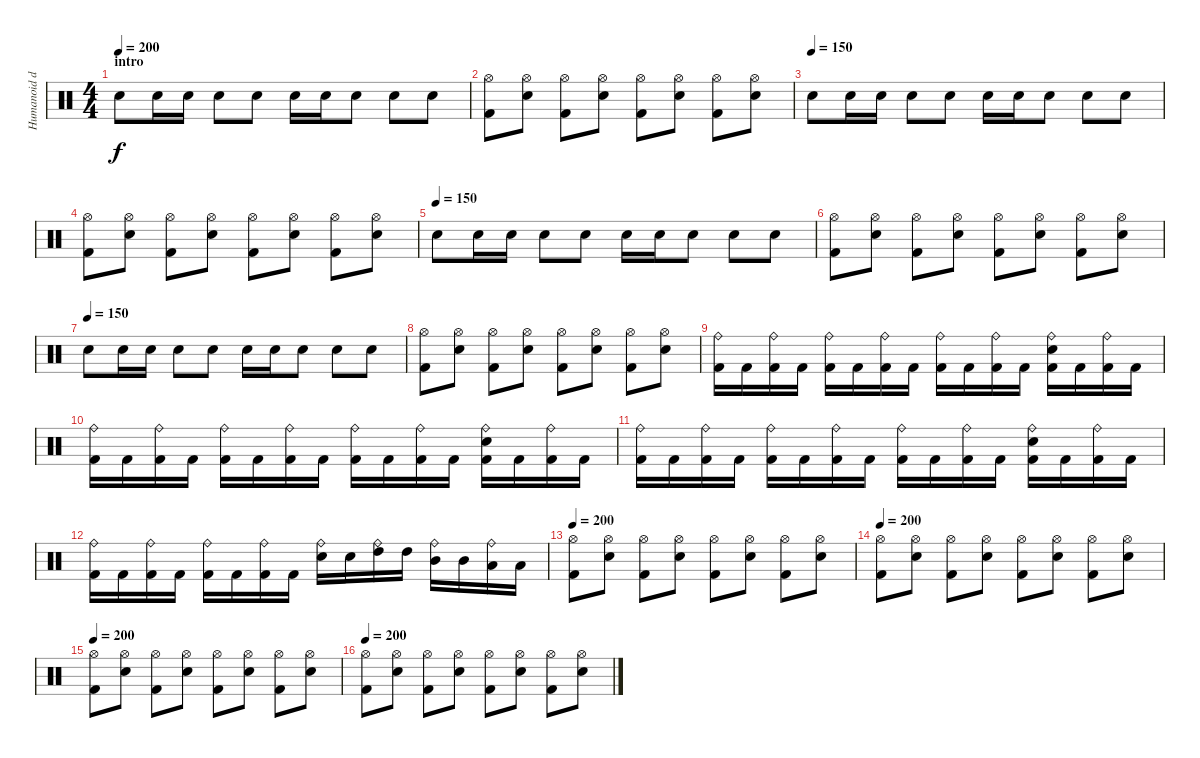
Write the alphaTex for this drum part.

\track ("Humanoid drum machine" "Humanoid d") {instrument percussion}
\staff {score}
\articulation defaults
\ts (4 4)
\section ("" "intro")
\tempo 200
\tempo 150
\tempo 200
\clef neutral
\ks c "Electric Snare (hit)".8{dy f} "Electric Snare (hit)".16 "Electric Snare (hit)".16 "Electric Snare (hit)".8 "Electric Snare (hit)".8 "Electric Snare (hit)".16 "Electric Snare (hit)".16 "Electric Snare (hit)".8 "Electric Snare (hit)".8 "Electric Snare (hit)".8
|
("Hi-Hat (open)" "Kick (hit) 2").8 ("Hi-Hat (open)" "Electric Snare (hit)").8 ("Hi-Hat (open)" "Kick (hit) 2").8 ("Hi-Hat (open)" "Electric Snare (hit)").8 ("Hi-Hat (open)" "Kick (hit) 2").8 ("Hi-Hat (open)" "Electric Snare (hit)").8 ("Hi-Hat (open)" "Kick (hit) 2").8 ("Hi-Hat (open)" "Electric Snare (hit)").8 |
\tempo (150)
"Electric Snare (hit)".8 "Electric Snare (hit)".16 "Electric Snare (hit)".16 "Electric Snare (hit)".8 "Electric Snare (hit)".8 "Electric Snare (hit)".16 "Electric Snare (hit)".16 "Electric Snare (hit)".8 "Electric Snare (hit)".8 "Electric Snare (hit)".8 |
("Hi-Hat (open)" "Kick (hit) 2").8 ("Hi-Hat (open)" "Electric Snare (hit)").8 ("Hi-Hat (open)" "Kick (hit) 2").8 ("Hi-Hat (open)" "Electric Snare (hit)").8 ("Hi-Hat (open)" "Kick (hit) 2").8 ("Hi-Hat (open)" "Electric Snare (hit)").8 ("Hi-Hat (open)" "Kick (hit) 2").8 ("Hi-Hat (open)" "Electric Snare (hit)").8 |
\tempo (150)
"Electric Snare (hit)".8 "Electric Snare (hit)".16 "Electric Snare (hit)".16 "Electric Snare (hit)".8 "Electric Snare (hit)".8 "Electric Snare (hit)".16 "Electric Snare (hit)".16 "Electric Snare (hit)".8 "Electric Snare (hit)".8 "Electric Snare (hit)".8 |
("Hi-Hat (open)" "Kick (hit) 2").8 ("Hi-Hat (open)" "Electric Snare (hit)").8 ("Hi-Hat (open)" "Kick (hit) 2").8 ("Hi-Hat (open)" "Electric Snare (hit)").8 ("Hi-Hat (open)" "Kick (hit) 2").8 ("Hi-Hat (open)" "Electric Snare (hit)").8 ("Hi-Hat (open)" "Kick (hit) 2").8 ("Hi-Hat (open)" "Electric Snare (hit)").8 |
\tempo (150)
"Electric Snare (hit)".8 "Electric Snare (hit)".16 "Electric Snare (hit)".16 "Electric Snare (hit)".8 "Electric Snare (hit)".8 "Electric Snare (hit)".16 "Electric Snare (hit)".16 "Electric Snare (hit)".8 "Electric Snare (hit)".8 "Electric Snare (hit)".8 |
("Hi-Hat (open)" "Kick (hit) 2").8 ("Hi-Hat (open)" "Electric Snare (hit)").8 ("Hi-Hat (open)" "Kick (hit) 2").8 ("Hi-Hat (open)" "Electric Snare (hit)").8 ("Hi-Hat (open)" "Kick (hit) 2").8 ("Hi-Hat (open)" "Electric Snare (hit)").8 ("Hi-Hat (open)" "Kick (hit) 2").8 ("Hi-Hat (open)" "Electric Snare (hit)").8 |
("Ride (bell)" "Kick (hit) 2").16 "Kick (hit) 2".16 ("Ride (bell)" "Kick (hit) 2").16 "Kick (hit) 2".16 ("Ride (bell)" "Kick (hit) 2").16 "Kick (hit) 2".16 ("Ride (bell)" "Kick (hit) 2").16 "Kick (hit) 2".16 ("Ride (bell)" "Kick (hit) 2").16 "Kick (hit) 2".16 ("Ride (bell)" "Kick (hit) 2").16 "Kick (hit) 2".16 ("Ride (bell)" "Electric Snare (hit)" "Kick (hit) 2").16 "Kick (hit) 2".16 ("Ride (bell)" "Kick (hit) 2").16 "Kick (hit) 2".16 |
("Ride (bell)" "Kick (hit) 2").16 "Kick (hit) 2".16 ("Ride (bell)" "Kick (hit) 2").16 "Kick (hit) 2".16 ("Ride (bell)" "Kick (hit) 2").16 "Kick (hit) 2".16 ("Ride (bell)" "Kick (hit) 2").16 "Kick (hit) 2".16 ("Ride (bell)" "Kick (hit) 2").16 "Kick (hit) 2".16 ("Ride (bell)" "Kick (hit) 2").16 "Kick (hit) 2".16 ("Ride (bell)" "Electric Snare (hit)" "Kick (hit) 2").16 "Kick (hit) 2".16 ("Ride (bell)" "Kick (hit) 2").16 "Kick (hit) 2".16 |
("Ride (bell)" "Kick (hit) 2").16 "Kick (hit) 2".16 ("Ride (bell)" "Kick (hit) 2").16 "Kick (hit) 2".16 ("Ride (bell)" "Kick (hit) 2").16 "Kick (hit) 2".16 ("Ride (bell)" "Kick (hit) 2").16 "Kick (hit) 2".16 ("Ride (bell)" "Kick (hit) 2").16 "Kick (hit) 2".16 ("Ride (bell)" "Kick (hit) 2").16 "Kick (hit) 2".16 ("Ride (bell)" "Electric Snare (hit)" "Kick (hit) 2").16 "Kick (hit) 2".16 ("Ride (bell)" "Kick (hit) 2").16 "Kick (hit) 2".16 |
("Ride (bell)" "Kick (hit) 2").16 "Kick (hit) 2".16 ("Ride (bell)" "Kick (hit) 2").16 "Kick (hit) 2".16 ("Ride (bell)" "Kick (hit) 2").16 "Kick (hit) 2".16 ("Ride (bell)" "Kick (hit) 2").16 "Kick (hit) 2".16 ("Ride (bell)" "Electric Snare (hit)").16 "Electric Snare (hit)".16 ("Ride (bell)" "High Tom (hit)").16 "High Tom (hit)".16 ("Ride (bell)" "Mid Tom (hit)").16 "Mid Tom (hit)".16 ("Ride (bell)" "Low Tom (hit)").16 "Low Tom (hit)".16 |
\tempo 200
("Hi-Hat (open)" "Kick (hit) 2").8 ("Hi-Hat (open)" "Electric Snare (hit)").8 ("Hi-Hat (open)" "Kick (hit) 2").8 ("Hi-Hat (open)" "Electric Snare (hit)").8 ("Hi-Hat (open)" "Kick (hit) 2").8 ("Hi-Hat (open)" "Electric Snare (hit)").8 ("Hi-Hat (open)" "Kick (hit) 2").8 ("Hi-Hat (open)" "Electric Snare (hit)").8 |
\tempo 200
("Hi-Hat (open)" "Kick (hit) 2").8 ("Hi-Hat (open)" "Electric Snare (hit)").8 ("Hi-Hat (open)" "Kick (hit) 2").8 ("Hi-Hat (open)" "Electric Snare (hit)").8 ("Hi-Hat (open)" "Kick (hit) 2").8 ("Hi-Hat (open)" "Electric Snare (hit)").8 ("Hi-Hat (open)" "Kick (hit) 2").8 ("Hi-Hat (open)" "Electric Snare (hit)").8 |
\tempo 200
("Hi-Hat (open)" "Kick (hit) 2").8 ("Hi-Hat (open)" "Electric Snare (hit)").8 ("Hi-Hat (open)" "Kick (hit) 2").8 ("Hi-Hat (open)" "Electric Snare (hit)").8 ("Hi-Hat (open)" "Kick (hit) 2").8 ("Hi-Hat (open)" "Electric Snare (hit)").8 ("Hi-Hat (open)" "Kick (hit) 2").8 ("Hi-Hat (open)" "Electric Snare (hit)").8 |
\tempo 200
("Hi-Hat (open)" "Kick (hit) 2").8 ("Hi-Hat (open)" "Electric Snare (hit)").8 ("Hi-Hat (open)" "Kick (hit) 2").8 ("Hi-Hat (open)" "Electric Snare (hit)").8 ("Hi-Hat (open)" "Kick (hit) 2").8 ("Hi-Hat (open)" "Electric Snare (hit)").8 ("Hi-Hat (open)" "Kick (hit) 2").8 ("Hi-Hat (open)" "Electric Snare (hit)").8
